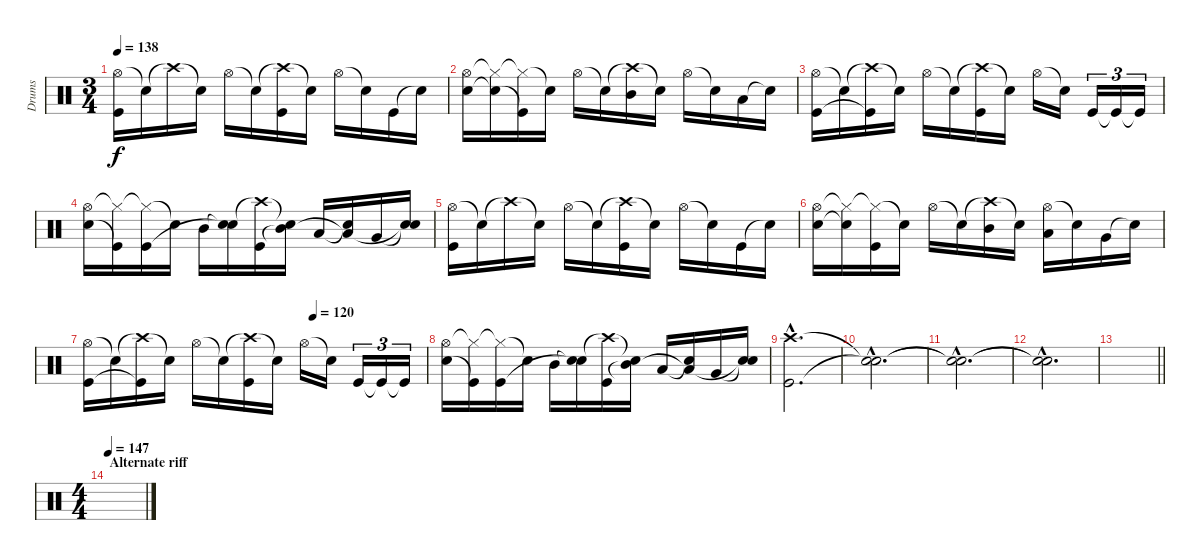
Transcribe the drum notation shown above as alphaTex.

\track ("Drums" "Drums") {instrument percussion}
\staff {score}
\articulation defaults
\ts (3 4)
\tempo 138
\clef neutral
\ks c
("Hi-Hat (open)" "Kick (hit)").16{dy f} "Snare (hit)"{t}.16 "Crash high (hit)"{t}.16 "Snare (hit)"{t}.16 "Hi-Hat (open)".16 "Snare (hit)"{t}.16 ("Crash high (hit)"{t} "Kick (hit)").16 "Snare (hit)"{t}.16 "Hi-Hat (open)".16 "Snare (hit)"{t}.16 "Kick (hit)".16 "Snare (hit)"{t}.16 |
("Hi-Hat (open)" "Electric Snare (hit)").16 ("Hi-Hat (closed)"{t} "Snare (hit)"{t}).16 ("Hi-Hat (closed)"{t} "Kick (hit)"{t}).16 "Snare (hit)"{t}.16 "Hi-Hat (open)".16 "Snare (hit)"{t}.16 ("Crash high (hit)"{t} "Mid Tom (hit)").16 "Snare (hit)"{t}.16 "Hi-Hat (open)".16 "Snare (hit)"{t}.16 "Low Tom (hit)".16 "Snare (hit)"{t}.16 |
("Hi-Hat (open)" "Kick (hit)").16 "Snare (hit)"{t}.16 ("Crash high (hit)"{t} "Kick (hit)"{t}).16 "Snare (hit)"{t}.16 "Hi-Hat (open)".16 "Snare (hit)"{t}.16 ("Crash high (hit)"{t} "Kick (hit)").16 "Snare (hit)"{t}.16 "Hi-Hat (open)".16 "Snare (hit)"{t}.16 "Kick (hit)".16{tu (3 2)} "Kick (hit)"{t}.16{tu (3 2)} "Kick (hit)"{t}.16{tu (3 2)} |
("Hi-Hat (open)" "Electric Snare (hit)").16 ("Hi-Hat (closed)"{t} "Kick (hit)"{t}).16 ("Hi-Hat (closed)"{t} "Kick (hit)").16 "Snare (hit)"{t}.16 "Mid Tom (hit)".16 ("Snare (hit)"{t} "Electric Snare (hit)"{t}).16 ("Crash high (hit)"{t} "Kick (hit)").16 ("Snare (hit)"{t} "Mid Tom (hit)"{t}).16 "Low Tom (hit)".16 ("Snare (hit)"{t} "Low Tom (hit)"{t}).16 "Very Low Tom (hit)".16 ("Snare (hit)"{t} "Electric Snare (hit)"{t}).16 |
("Hi-Hat (open)" "Kick (hit)").16 "Snare (hit)"{t}.16 "Crash high (hit)"{t}.16 "Snare (hit)"{t}.16 "Hi-Hat (open)".16 "Snare (hit)"{t}.16 ("Crash high (hit)"{t} "Kick (hit)").16 "Snare (hit)"{t}.16 "Hi-Hat (open)".16 "Snare (hit)"{t}.16 "Kick (hit)".16 "Snare (hit)"{t}.16 |
("Hi-Hat (open)" "Electric Snare (hit)").16 ("Hi-Hat (closed)"{t} "Snare (hit)"{t}).16 ("Hi-Hat (closed)"{t} "Kick (hit)").16 "Snare (hit)"{t}.16 "Hi-Hat (open)".16 "Snare (hit)"{t}.16 ("Crash high (hit)"{t} "Mid Tom (hit)").16 "Snare (hit)"{t}.16 ("Hi-Hat (open)" "Low Tom (hit)").16 "Snare (hit)"{t}.16 "Very Low Tom (hit)".16 "Snare (hit)"{t}.16 |
\tempo (120 0.6666666666666666)
("Hi-Hat (open)" "Kick (hit)").16 "Snare (hit)"{t}.16 ("Crash high (hit)"{t} "Kick (hit)"{t}).16 "Snare (hit)"{t}.16 "Hi-Hat (open)".16 "Snare (hit)"{t}.16 ("Crash high (hit)"{t} "Kick (hit)").16 "Snare (hit)"{t}.16 "Hi-Hat (open)".16 "Snare (hit)"{t}.16 "Kick (hit)".16{tu (3 2)} "Kick (hit)"{t}.16{tu (3 2)} "Kick (hit)"{t}.16{tu (3 2)} |
("Hi-Hat (open)" "Electric Snare (hit)").16 ("Hi-Hat (closed)"{t} "Kick (hit)"{t}).16 ("Hi-Hat (closed)"{t} "Kick (hit)").16 "Snare (hit)"{t}.16 "Mid Tom (hit)".16 ("Snare (hit)"{t} "Electric Snare (hit)"{t}).16 ("Crash high (hit)"{t} "Kick (hit)").16 ("Snare (hit)"{t} "Mid Tom (hit)"{t}).16 "Low Tom (hit)".16 ("Snare (hit)"{t} "Low Tom (hit)"{t}).16 "Very Low Tom (hit)".16 ("Snare (hit)"{t} "Electric Snare (hit)"{t}).16 |
("Crash high (hit)"{hac} "Kick (hit)"{hac}).2{d} |
("Snare (hit)"{hac t} "Snare (hit)"{hac t}).2{d} |
("Snare (hit)"{hac t} "Snare (hit)"{hac t}).2{d} |
("Snare (hit)"{hac t} "Snare (hit)"{hac t}).2{d} |
\barLineRight lightlight
|
\ts (4 4)
\section ("" "Alternate riff")
\tempo 147
